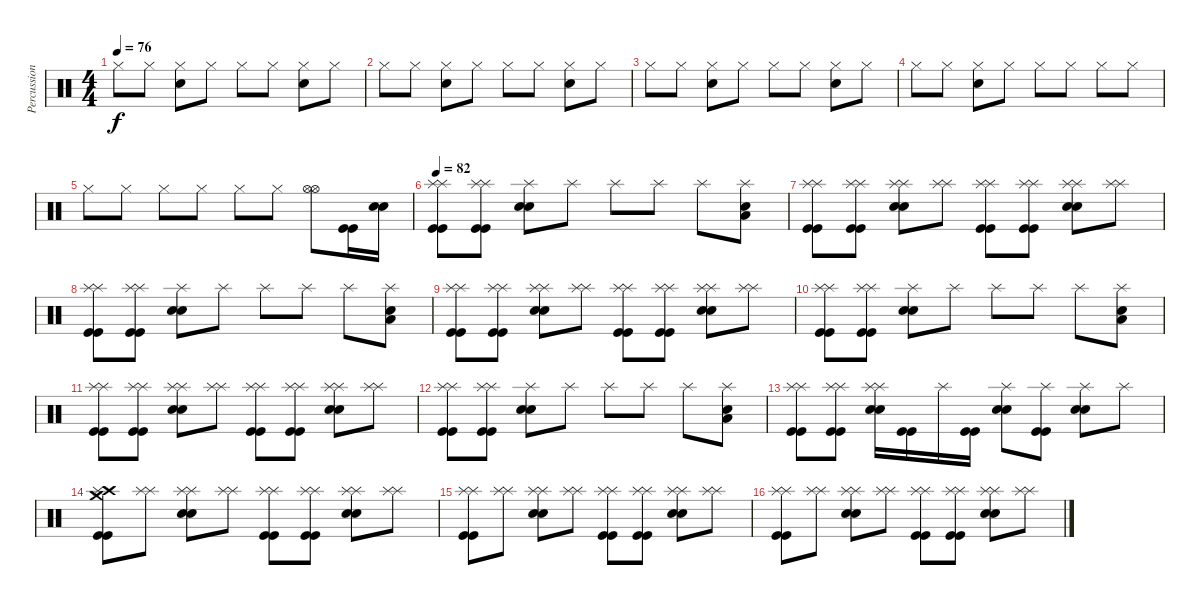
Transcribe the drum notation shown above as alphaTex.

\track ("Percussions" "Percussion") {instrument percussion}
\staff {score}
\articulation defaults
\ts (4 4)
\tempo 76
\clef neutral
\ks c "Hi-Hat (closed)".8{dy f} "Hi-Hat (closed)".8
("Hi-Hat (closed)" "Electric Snare (hit)").8 "Hi-Hat (closed)".8 "Hi-Hat (closed)".8 "Hi-Hat (closed)".8 ("Hi-Hat (closed)" "Electric Snare (hit)").8 "Hi-Hat (closed)".8 |
"Hi-Hat (closed)".8 "Hi-Hat (closed)".8 ("Hi-Hat (closed)" "Electric Snare (hit)").8 "Hi-Hat (closed)".8 "Hi-Hat (closed)".8 "Hi-Hat (closed)".8 ("Hi-Hat (closed)" "Electric Snare (hit)").8 "Hi-Hat (closed)".8 |
"Hi-Hat (closed)".8 "Hi-Hat (closed)".8 ("Hi-Hat (closed)" "Electric Snare (hit)").8 "Hi-Hat (closed)".8 "Hi-Hat (closed)".8 "Hi-Hat (closed)".8 ("Hi-Hat (closed)" "Electric Snare (hit)").8 "Hi-Hat (closed)".8 |
"Hi-Hat (closed)".8 "Hi-Hat (closed)".8 ("Hi-Hat (closed)" "Electric Snare (hit)").8 "Hi-Hat (closed)".8 "Hi-Hat (closed)".8 "Hi-Hat (closed)".8 "Hi-Hat (closed)".8 "Hi-Hat (closed)".8 |
"Hi-Hat (closed)".8 "Hi-Hat (closed)".8 "Hi-Hat (closed)".8 "Hi-Hat (closed)".8 "Hi-Hat (closed)".8 "Hi-Hat (closed)".8 ("Hi-Hat (open)" "Hi-Hat (open)").8{volume 14} ("Kick (hit)" "Kick (hit)").16 ("Electric Snare (hit)" "Electric Snare (hit)").16 |
\tempo 82
("Splash (hit)" "Splash (hit)" "Kick (hit)" "Kick (hit)").8 ("Splash (hit)" "Splash (hit)" "Kick (hit)" "Kick (hit)").8 ("Splash (hit)" "Electric Snare (hit)" "Electric Snare (hit)").8 "Splash (hit)".8 "Splash (hit)".8 "Splash (hit)".8 "Splash (hit)".8 ("Splash (hit)" "Low Floor Tom (hit)" "Electric Snare (hit)").8 |
("Splash (hit)" "Splash (hit)" "Kick (hit)" "Kick (hit)").8 ("Splash (hit)" "Splash (hit)" "Kick (hit)" "Kick (hit)").8 ("Splash (hit)" "Splash (hit)" "Electric Snare (hit)" "Electric Snare (hit)").8 ("Splash (hit)" "Splash (hit)").8 ("Splash (hit)" "Splash (hit)" "Kick (hit)" "Kick (hit)").8 ("Splash (hit)" "Splash (hit)" "Kick (hit)" "Kick (hit)").8 ("Splash (hit)" "Splash (hit)" "Electric Snare (hit)" "Electric Snare (hit)").8 ("Splash (hit)" "Splash (hit)").8 |
("Splash (hit)" "Splash (hit)" "Kick (hit)" "Kick (hit)").8 ("Splash (hit)" "Splash (hit)" "Kick (hit)" "Kick (hit)").8 ("Splash (hit)" "Electric Snare (hit)" "Electric Snare (hit)").8 "Splash (hit)".8 "Splash (hit)".8 "Splash (hit)".8 "Splash (hit)".8 ("Splash (hit)" "Low Floor Tom (hit)" "Electric Snare (hit)").8 |
("Splash (hit)" "Splash (hit)" "Kick (hit)" "Kick (hit)").8 ("Splash (hit)" "Splash (hit)" "Kick (hit)" "Kick (hit)").8 ("Splash (hit)" "Splash (hit)" "Electric Snare (hit)" "Electric Snare (hit)").8 ("Splash (hit)" "Splash (hit)").8 ("Splash (hit)" "Splash (hit)" "Kick (hit)" "Kick (hit)").8 ("Splash (hit)" "Splash (hit)" "Kick (hit)" "Kick (hit)").8 ("Splash (hit)" "Splash (hit)" "Electric Snare (hit)" "Electric Snare (hit)").8 ("Splash (hit)" "Splash (hit)").8 |
("Splash (hit)" "Splash (hit)" "Kick (hit)" "Kick (hit)").8 ("Splash (hit)" "Splash (hit)" "Kick (hit)" "Kick (hit)").8 ("Splash (hit)" "Electric Snare (hit)" "Electric Snare (hit)").8 "Splash (hit)".8 "Splash (hit)".8 "Splash (hit)".8 "Splash (hit)".8 ("Splash (hit)" "Low Floor Tom (hit)" "Electric Snare (hit)").8 |
("Splash (hit)" "Splash (hit)" "Kick (hit)" "Kick (hit)").8 ("Splash (hit)" "Splash (hit)" "Kick (hit)" "Kick (hit)").8 ("Splash (hit)" "Splash (hit)" "Electric Snare (hit)" "Electric Snare (hit)").8 ("Splash (hit)" "Splash (hit)").8 ("Splash (hit)" "Splash (hit)" "Kick (hit)" "Kick (hit)").8 ("Splash (hit)" "Splash (hit)" "Kick (hit)" "Kick (hit)").8 ("Splash (hit)" "Splash (hit)" "Electric Snare (hit)" "Electric Snare (hit)").8 ("Splash (hit)" "Splash (hit)").8 |
("Splash (hit)" "Splash (hit)" "Kick (hit)" "Kick (hit)").8 ("Splash (hit)" "Splash (hit)" "Kick (hit)" "Kick (hit)").8 ("Splash (hit)" "Electric Snare (hit)" "Electric Snare (hit)").8 "Splash (hit)".8 "Splash (hit)".8 "Splash (hit)".8 "Splash (hit)".8 ("Splash (hit)" "Low Floor Tom (hit)" "Electric Snare (hit)").8 |
("Splash (hit)" "Splash (hit)" "Kick (hit)" "Kick (hit)").8 ("Splash (hit)" "Splash (hit)" "Kick (hit)" "Kick (hit)").8 ("Splash (hit)" "Splash (hit)" "Electric Snare (hit)" "Electric Snare (hit)").16 ("Kick (hit)" "Kick (hit)").16 "Splash (hit)".16 ("Kick (hit)" "Kick (hit)").16 ("Splash (hit)" "Electric Snare (hit)" "Electric Snare (hit)").8 ("Splash (hit)" "Kick (hit)" "Kick (hit)").8 ("Splash (hit)" "Electric Snare (hit)" "Electric Snare (hit)").8 "Splash (hit)".8 |
("Crash high (hit)" "Crash medium (hit)" "Splash (hit)" "Kick (hit)" "Kick (hit)").8 ("Splash (hit)" "Splash (hit)").8 ("Splash (hit)" "Splash (hit)" "Electric Snare (hit)" "Electric Snare (hit)").8 ("Splash (hit)" "Splash (hit)").8 ("Splash (hit)" "Splash (hit)" "Kick (hit)" "Kick (hit)").8 ("Splash (hit)" "Splash (hit)" "Kick (hit)" "Kick (hit)").8 ("Splash (hit)" "Splash (hit)" "Electric Snare (hit)" "Electric Snare (hit)").8 ("Splash (hit)" "Splash (hit)").8 |
("Splash (hit)" "Splash (hit)" "Kick (hit)" "Kick (hit)").8 ("Splash (hit)" "Splash (hit)").8 ("Splash (hit)" "Splash (hit)" "Electric Snare (hit)" "Electric Snare (hit)").8 ("Splash (hit)" "Splash (hit)").8 ("Splash (hit)" "Splash (hit)" "Kick (hit)" "Kick (hit)").8 ("Splash (hit)" "Splash (hit)" "Kick (hit)" "Kick (hit)").8 ("Splash (hit)" "Splash (hit)" "Electric Snare (hit)" "Electric Snare (hit)").8 ("Splash (hit)" "Splash (hit)").8 |
("Splash (hit)" "Splash (hit)" "Kick (hit)" "Kick (hit)").8 ("Splash (hit)" "Splash (hit)").8 ("Splash (hit)" "Splash (hit)" "Electric Snare (hit)" "Electric Snare (hit)").8 ("Splash (hit)" "Splash (hit)").8 ("Splash (hit)" "Splash (hit)" "Kick (hit)" "Kick (hit)").8 ("Splash (hit)" "Splash (hit)" "Kick (hit)" "Kick (hit)").8 ("Splash (hit)" "Splash (hit)" "Electric Snare (hit)" "Electric Snare (hit)").8 ("Splash (hit)" "Splash (hit)").8
